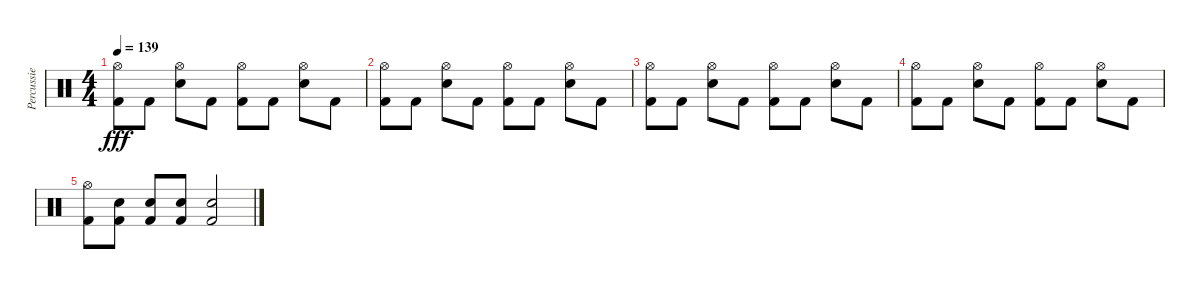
\track ("Percussie" "Percussie") {instrument percussion}
\staff {score}
\articulation defaults
\ts (4 4)
\tempo 139
\clef neutral
\ks c
("Hi-Hat (open)" "Kick (hit) 2").8{dy fff} "Kick (hit) 2".8 ("Hi-Hat (open)" "Electric Snare (hit)").8 "Kick (hit) 2".8 ("Hi-Hat (open)" "Kick (hit) 2").8 "Kick (hit) 2".8 ("Hi-Hat (open)" "Electric Snare (hit)").8 "Kick (hit) 2".8 |
("Hi-Hat (open)" "Kick (hit) 2").8 "Kick (hit) 2".8 ("Hi-Hat (open)" "Electric Snare (hit)").8 "Kick (hit) 2".8 ("Hi-Hat (open)" "Kick (hit) 2").8 "Kick (hit) 2".8 ("Hi-Hat (open)" "Electric Snare (hit)").8 "Kick (hit) 2".8 |
("Hi-Hat (open)" "Kick (hit) 2").8 "Kick (hit) 2".8 ("Hi-Hat (open)" "Electric Snare (hit)").8 "Kick (hit) 2".8 ("Hi-Hat (open)" "Kick (hit) 2").8 "Kick (hit) 2".8 ("Hi-Hat (open)" "Electric Snare (hit)").8 "Kick (hit) 2".8 |
("Hi-Hat (open)" "Kick (hit) 2").8 "Kick (hit) 2".8 ("Hi-Hat (open)" "Electric Snare (hit)").8 "Kick (hit) 2".8 ("Hi-Hat (open)" "Kick (hit) 2").8 "Kick (hit) 2".8 ("Hi-Hat (open)" "Electric Snare (hit)").8 "Kick (hit) 2".8 |
("Hi-Hat (open)" "Kick (hit) 2").8 ("Electric Snare (hit)" "Kick (hit) 2").8 ("Electric Snare (hit)" "Kick (hit) 2").8 ("Electric Snare (hit)" "Kick (hit) 2").8 ("Electric Snare (hit)" "Kick (hit) 2").2
